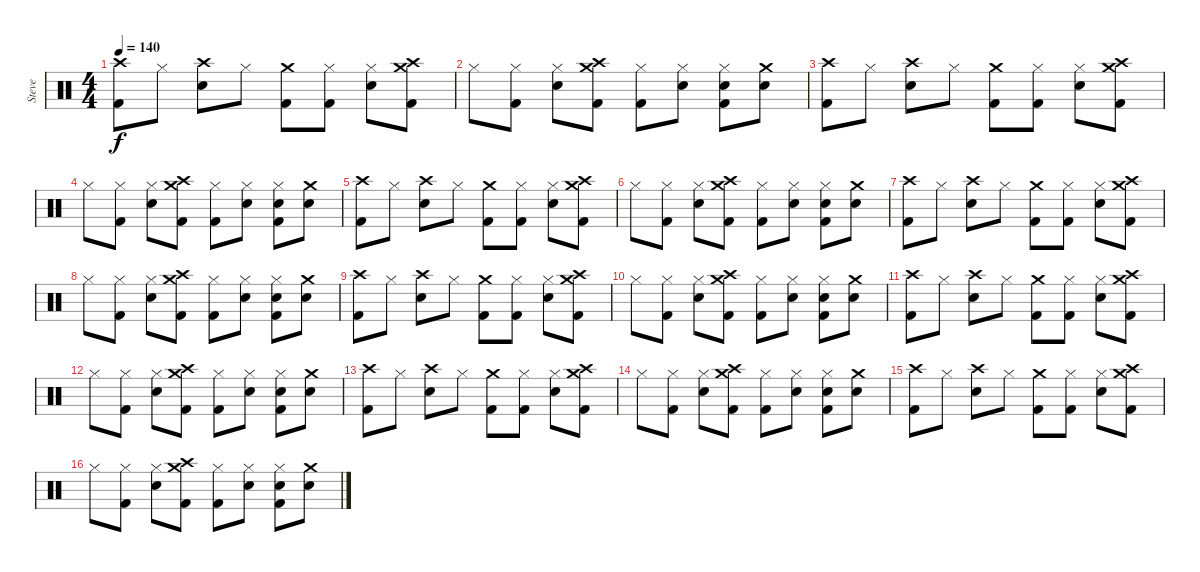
\track ("Steve" "Steve") {instrument percussion}
\staff {score}
\articulation defaults
\ts (4 4)
\tempo 140
\clef neutral
\ks c
("Crash high (hit)" "Kick (hit) 2").8{dy f} "Hi-Hat (closed)".8 ("Crash high (hit)" "Snare (hit) 2").8 "Hi-Hat (closed)".8 ("Crash medium (hit)" "Kick (hit) 2").8 ("Hi-Hat (closed)" "Kick (hit) 2").8 ("Hi-Hat (closed)" "Snare (hit) 2").8 ("Crash high (hit)" "Crash medium (hit)" "Kick (hit) 2").8 |
"Hi-Hat (closed)".8 ("Hi-Hat (closed)" "Kick (hit) 2").8 ("Hi-Hat (closed)" "Snare (hit) 2").8 ("Crash high (hit)" "Crash medium (hit)" "Kick (hit) 2").8 ("Hi-Hat (closed)" "Kick (hit) 2").8 ("Hi-Hat (closed)" "Snare (hit) 2").8 ("Hi-Hat (closed)" "Snare (hit) 2" "Kick (hit) 2").8 ("Crash medium (hit)" "Snare (hit) 2").8 |
("Crash high (hit)" "Kick (hit) 2").8 "Hi-Hat (closed)".8 ("Crash high (hit)" "Snare (hit) 2").8 "Hi-Hat (closed)".8 ("Crash medium (hit)" "Kick (hit) 2").8 ("Hi-Hat (closed)" "Kick (hit) 2").8 ("Hi-Hat (closed)" "Snare (hit) 2").8 ("Crash high (hit)" "Crash medium (hit)" "Kick (hit) 2").8 |
"Hi-Hat (closed)".8 ("Hi-Hat (closed)" "Kick (hit) 2").8 ("Hi-Hat (closed)" "Snare (hit) 2").8 ("Crash high (hit)" "Crash medium (hit)" "Kick (hit) 2").8 ("Hi-Hat (closed)" "Kick (hit) 2").8 ("Hi-Hat (closed)" "Snare (hit) 2").8 ("Hi-Hat (closed)" "Snare (hit) 2" "Kick (hit) 2").8 ("Crash medium (hit)" "Snare (hit) 2").8 |
("Crash high (hit)" "Kick (hit) 2").8 "Hi-Hat (closed)".8 ("Crash high (hit)" "Snare (hit) 2").8 "Hi-Hat (closed)".8 ("Crash medium (hit)" "Kick (hit) 2").8 ("Hi-Hat (closed)" "Kick (hit) 2").8 ("Hi-Hat (closed)" "Snare (hit) 2").8 ("Crash high (hit)" "Crash medium (hit)" "Kick (hit) 2").8 |
"Hi-Hat (closed)".8 ("Hi-Hat (closed)" "Kick (hit) 2").8 ("Hi-Hat (closed)" "Snare (hit) 2").8 ("Crash high (hit)" "Crash medium (hit)" "Kick (hit) 2").8 ("Hi-Hat (closed)" "Kick (hit) 2").8 ("Hi-Hat (closed)" "Snare (hit) 2").8 ("Hi-Hat (closed)" "Snare (hit) 2" "Kick (hit) 2").8 ("Crash medium (hit)" "Snare (hit) 2").8 |
("Crash high (hit)" "Kick (hit) 2").8 "Hi-Hat (closed)".8 ("Crash high (hit)" "Snare (hit) 2").8 "Hi-Hat (closed)".8 ("Crash medium (hit)" "Kick (hit) 2").8 ("Hi-Hat (closed)" "Kick (hit) 2").8 ("Hi-Hat (closed)" "Snare (hit) 2").8 ("Crash high (hit)" "Crash medium (hit)" "Kick (hit) 2").8 |
"Hi-Hat (closed)".8 ("Hi-Hat (closed)" "Kick (hit) 2").8 ("Hi-Hat (closed)" "Snare (hit) 2").8 ("Crash high (hit)" "Crash medium (hit)" "Kick (hit) 2").8 ("Hi-Hat (closed)" "Kick (hit) 2").8 ("Hi-Hat (closed)" "Snare (hit) 2").8 ("Hi-Hat (closed)" "Snare (hit) 2" "Kick (hit) 2").8 ("Crash medium (hit)" "Snare (hit) 2").8 |
("Crash high (hit)" "Kick (hit) 2").8 "Hi-Hat (closed)".8 ("Crash high (hit)" "Snare (hit) 2").8 "Hi-Hat (closed)".8 ("Crash medium (hit)" "Kick (hit) 2").8 ("Hi-Hat (closed)" "Kick (hit) 2").8 ("Hi-Hat (closed)" "Snare (hit) 2").8 ("Crash high (hit)" "Crash medium (hit)" "Kick (hit) 2").8 |
"Hi-Hat (closed)".8 ("Hi-Hat (closed)" "Kick (hit) 2").8 ("Hi-Hat (closed)" "Snare (hit) 2").8 ("Crash high (hit)" "Crash medium (hit)" "Kick (hit) 2").8 ("Hi-Hat (closed)" "Kick (hit) 2").8 ("Hi-Hat (closed)" "Snare (hit) 2").8 ("Hi-Hat (closed)" "Snare (hit) 2" "Kick (hit) 2").8 ("Crash medium (hit)" "Snare (hit) 2").8 |
("Crash high (hit)" "Kick (hit) 2").8 "Hi-Hat (closed)".8 ("Crash high (hit)" "Snare (hit) 2").8 "Hi-Hat (closed)".8 ("Crash medium (hit)" "Kick (hit) 2").8 ("Hi-Hat (closed)" "Kick (hit) 2").8 ("Hi-Hat (closed)" "Snare (hit) 2").8 ("Crash high (hit)" "Crash medium (hit)" "Kick (hit) 2").8 |
"Hi-Hat (closed)".8 ("Hi-Hat (closed)" "Kick (hit) 2").8 ("Hi-Hat (closed)" "Snare (hit) 2").8 ("Crash high (hit)" "Crash medium (hit)" "Kick (hit) 2").8 ("Hi-Hat (closed)" "Kick (hit) 2").8 ("Hi-Hat (closed)" "Snare (hit) 2").8 ("Hi-Hat (closed)" "Snare (hit) 2" "Kick (hit) 2").8 ("Crash medium (hit)" "Snare (hit) 2").8 |
("Crash high (hit)" "Kick (hit) 2").8 "Hi-Hat (closed)".8 ("Crash high (hit)" "Snare (hit) 2").8 "Hi-Hat (closed)".8 ("Crash medium (hit)" "Kick (hit) 2").8 ("Hi-Hat (closed)" "Kick (hit) 2").8 ("Hi-Hat (closed)" "Snare (hit) 2").8 ("Crash high (hit)" "Crash medium (hit)" "Kick (hit) 2").8 |
"Hi-Hat (closed)".8 ("Hi-Hat (closed)" "Kick (hit) 2").8 ("Hi-Hat (closed)" "Snare (hit) 2").8 ("Crash high (hit)" "Crash medium (hit)" "Kick (hit) 2").8 ("Hi-Hat (closed)" "Kick (hit) 2").8 ("Hi-Hat (closed)" "Snare (hit) 2").8 ("Hi-Hat (closed)" "Snare (hit) 2" "Kick (hit) 2").8 ("Crash medium (hit)" "Snare (hit) 2").8 |
("Crash high (hit)" "Kick (hit) 2").8 "Hi-Hat (closed)".8 ("Crash high (hit)" "Snare (hit) 2").8 "Hi-Hat (closed)".8 ("Crash medium (hit)" "Kick (hit) 2").8 ("Hi-Hat (closed)" "Kick (hit) 2").8 ("Hi-Hat (closed)" "Snare (hit) 2").8 ("Crash high (hit)" "Crash medium (hit)" "Kick (hit) 2").8 |
"Hi-Hat (closed)".8 ("Hi-Hat (closed)" "Kick (hit) 2").8 ("Hi-Hat (closed)" "Snare (hit) 2").8 ("Crash high (hit)" "Crash medium (hit)" "Kick (hit) 2").8 ("Hi-Hat (closed)" "Kick (hit) 2").8 ("Hi-Hat (closed)" "Snare (hit) 2").8 ("Hi-Hat (closed)" "Snare (hit) 2" "Kick (hit) 2").8 ("Crash medium (hit)" "Snare (hit) 2").8
